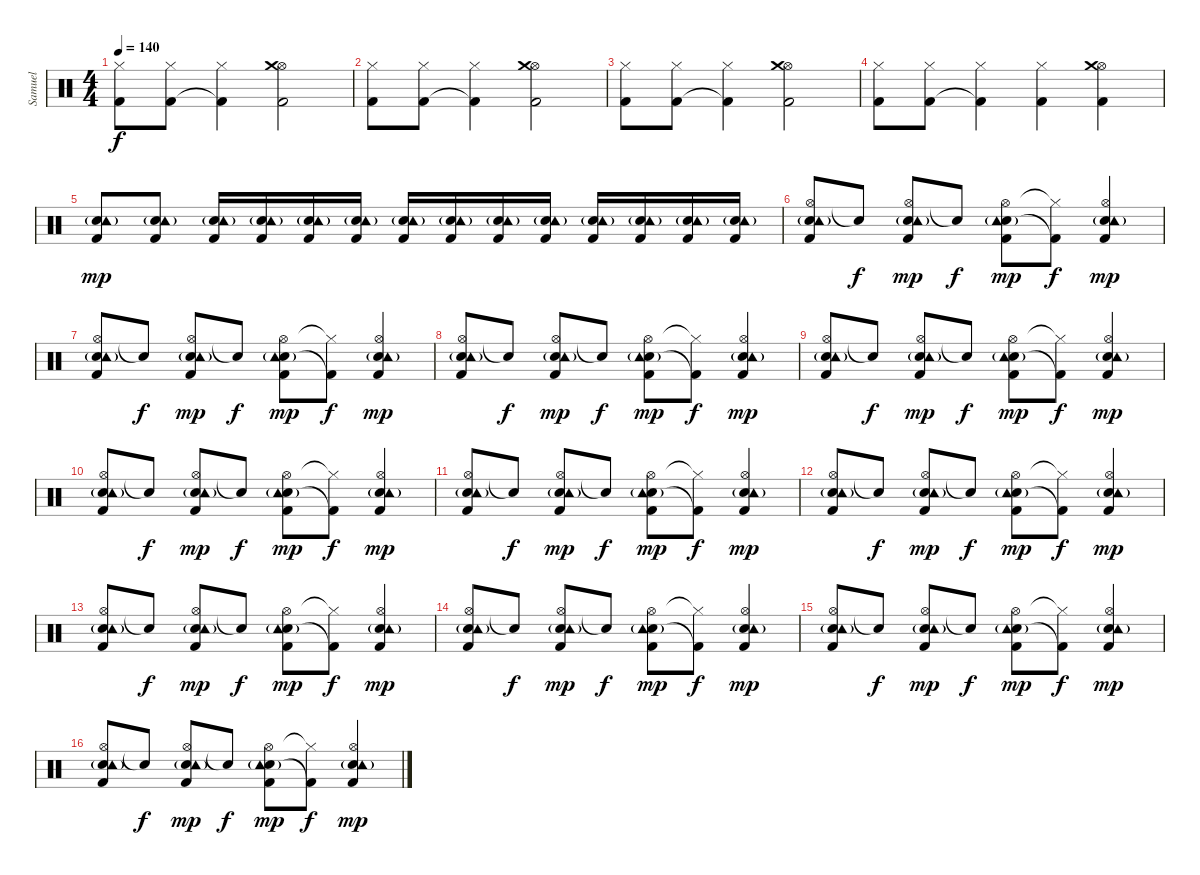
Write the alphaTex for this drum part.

\track ("Samuel" "Samuel") {instrument percussion}
\staff {score}
\articulation defaults
\ts (4 4)
\tempo 140
\clef neutral
\ks c
("Hi-Hat (closed)" "Kick (hit) 2").8{dy f} ("Hi-Hat (closed)" "Kick (hit) 2").8 ("Hi-Hat (closed)" "Kick (hit) 2"{t}).4 ("Hi-Hat (open)" "Crash medium (hit)" "Kick (hit) 2").2 |
("Hi-Hat (closed)" "Kick (hit) 2").8 ("Hi-Hat (closed)" "Kick (hit) 2").8 ("Hi-Hat (closed)" "Kick (hit) 2"{t}).4 ("Hi-Hat (open)" "Crash medium (hit)" "Kick (hit) 2").2 |
("Hi-Hat (closed)" "Kick (hit) 2").8 ("Hi-Hat (closed)" "Kick (hit) 2").8 ("Hi-Hat (closed)" "Kick (hit) 2"{t}).4 ("Hi-Hat (open)" "Crash medium (hit)" "Kick (hit) 2").2 |
("Hi-Hat (closed)" "Kick (hit) 2").8 ("Hi-Hat (closed)" "Kick (hit) 2").8 ("Hi-Hat (closed)" "Kick (hit) 2"{t}).4 ("Hi-Hat (closed)" "Kick (hit) 2").4 ("Hi-Hat (open)" "Crash medium (hit)" "Kick (hit) 2").4 |
("Snare (hit) 2"{g} "Kick (hit) 2" "Tambourine (hit)").8{dy mp} ("Snare (hit) 2"{g} "Kick (hit) 2" "Tambourine (hit)").8 ("Snare (hit) 2"{g} "Kick (hit) 2" "Tambourine (hit)").16 ("Snare (hit) 2"{g} "Kick (hit) 2" "Tambourine (hit)").16 ("Snare (hit) 2"{g} "Kick (hit) 2" "Tambourine (hit)").16 ("Snare (hit) 2"{g} "Kick (hit) 2" "Tambourine (hit)").16 ("Snare (hit) 2"{g} "Kick (hit) 2" "Tambourine (hit)").16 ("Snare (hit) 2"{g} "Kick (hit) 2" "Tambourine (hit)").16 ("Snare (hit) 2"{g} "Kick (hit) 2" "Tambourine (hit)").16 ("Snare (hit) 2"{g} "Kick (hit) 2" "Tambourine (hit)").16 ("Snare (hit) 2"{g} "Kick (hit) 2" "Tambourine (hit)").16 ("Snare (hit) 2"{g} "Kick (hit) 2" "Tambourine (hit)").16 ("Snare (hit) 2"{g} "Kick (hit) 2" "Tambourine (hit)").16 ("Snare (hit) 2"{g} "Kick (hit) 2" "Tambourine (hit)").16 |
("Hi-Hat (open)" "Snare (hit) 2"{g} "Kick (hit) 2" "Tambourine (hit)").8 "Snare (hit)"{t}.8{dy f} ("Hi-Hat (open)" "Snare (hit) 2"{g} "Kick (hit) 2" "Tambourine (hit)").8{dy mp} "Snare (hit)"{t}.8{dy f} ("Hi-Hat (open)" "Snare (hit) 2"{g} "Kick (hit) 2" "Tambourine (hit)").8{dy mp} ("Hi-Hat (closed)"{t} "Kick (hit) 2"{t}).8{dy f} ("Hi-Hat (open)" "Snare (hit) 2"{g} "Kick (hit) 2" "Tambourine (hit)").4{dy mp} |
("Hi-Hat (open)" "Snare (hit) 2"{g} "Kick (hit) 2" "Tambourine (hit)").8 "Snare (hit)"{t}.8{dy f} ("Hi-Hat (open)" "Snare (hit) 2"{g} "Kick (hit) 2" "Tambourine (hit)").8{dy mp} "Snare (hit)"{t}.8{dy f} ("Hi-Hat (open)" "Snare (hit) 2"{g} "Kick (hit) 2" "Tambourine (hit)").8{dy mp} ("Hi-Hat (closed)"{t} "Kick (hit) 2"{t}).8{dy f} ("Hi-Hat (open)" "Snare (hit) 2"{g} "Kick (hit) 2" "Tambourine (hit)").4{dy mp} |
("Hi-Hat (open)" "Snare (hit) 2"{g} "Kick (hit) 2" "Tambourine (hit)").8 "Snare (hit)"{t}.8{dy f} ("Hi-Hat (open)" "Snare (hit) 2"{g} "Kick (hit) 2" "Tambourine (hit)").8{dy mp} "Snare (hit)"{t}.8{dy f} ("Hi-Hat (open)" "Snare (hit) 2"{g} "Kick (hit) 2" "Tambourine (hit)").8{dy mp} ("Hi-Hat (closed)"{t} "Kick (hit) 2"{t}).8{dy f} ("Hi-Hat (open)" "Snare (hit) 2"{g} "Kick (hit) 2" "Tambourine (hit)").4{dy mp} |
("Hi-Hat (open)" "Snare (hit) 2"{g} "Kick (hit) 2" "Tambourine (hit)").8 "Snare (hit)"{t}.8{dy f} ("Hi-Hat (open)" "Snare (hit) 2"{g} "Kick (hit) 2" "Tambourine (hit)").8{dy mp} "Snare (hit)"{t}.8{dy f} ("Hi-Hat (open)" "Snare (hit) 2"{g} "Kick (hit) 2" "Tambourine (hit)").8{dy mp} ("Hi-Hat (closed)"{t} "Kick (hit) 2"{t}).8{dy f} ("Hi-Hat (open)" "Snare (hit) 2"{g} "Kick (hit) 2" "Tambourine (hit)").4{dy mp} |
("Hi-Hat (open)" "Snare (hit) 2"{g} "Kick (hit) 2" "Tambourine (hit)").8 "Snare (hit)"{t}.8{dy f} ("Hi-Hat (open)" "Snare (hit) 2"{g} "Kick (hit) 2" "Tambourine (hit)").8{dy mp} "Snare (hit)"{t}.8{dy f} ("Hi-Hat (open)" "Snare (hit) 2"{g} "Kick (hit) 2" "Tambourine (hit)").8{dy mp} ("Hi-Hat (closed)"{t} "Kick (hit) 2"{t}).8{dy f} ("Hi-Hat (open)" "Snare (hit) 2"{g} "Kick (hit) 2" "Tambourine (hit)").4{dy mp} |
("Hi-Hat (open)" "Snare (hit) 2"{g} "Kick (hit) 2" "Tambourine (hit)").8 "Snare (hit)"{t}.8{dy f} ("Hi-Hat (open)" "Snare (hit) 2"{g} "Kick (hit) 2" "Tambourine (hit)").8{dy mp} "Snare (hit)"{t}.8{dy f} ("Hi-Hat (open)" "Snare (hit) 2"{g} "Kick (hit) 2" "Tambourine (hit)").8{dy mp} ("Hi-Hat (closed)"{t} "Kick (hit) 2"{t}).8{dy f} ("Hi-Hat (open)" "Snare (hit) 2"{g} "Kick (hit) 2" "Tambourine (hit)").4{dy mp} |
("Hi-Hat (open)" "Snare (hit) 2"{g} "Kick (hit) 2" "Tambourine (hit)").8 "Snare (hit)"{t}.8{dy f} ("Hi-Hat (open)" "Snare (hit) 2"{g} "Kick (hit) 2" "Tambourine (hit)").8{dy mp} "Snare (hit)"{t}.8{dy f} ("Hi-Hat (open)" "Snare (hit) 2"{g} "Kick (hit) 2" "Tambourine (hit)").8{dy mp} ("Hi-Hat (closed)"{t} "Kick (hit) 2"{t}).8{dy f} ("Hi-Hat (open)" "Snare (hit) 2"{g} "Kick (hit) 2" "Tambourine (hit)").4{dy mp} |
("Hi-Hat (open)" "Snare (hit) 2"{g} "Kick (hit) 2" "Tambourine (hit)").8 "Snare (hit)"{t}.8{dy f} ("Hi-Hat (open)" "Snare (hit) 2"{g} "Kick (hit) 2" "Tambourine (hit)").8{dy mp} "Snare (hit)"{t}.8{dy f} ("Hi-Hat (open)" "Snare (hit) 2"{g} "Kick (hit) 2" "Tambourine (hit)").8{dy mp} ("Hi-Hat (closed)"{t} "Kick (hit) 2"{t}).8{dy f} ("Hi-Hat (open)" "Snare (hit) 2"{g} "Kick (hit) 2" "Tambourine (hit)").4{dy mp} |
("Hi-Hat (open)" "Snare (hit) 2"{g} "Kick (hit) 2" "Tambourine (hit)").8 "Snare (hit)"{t}.8{dy f} ("Hi-Hat (open)" "Snare (hit) 2"{g} "Kick (hit) 2" "Tambourine (hit)").8{dy mp} "Snare (hit)"{t}.8{dy f} ("Hi-Hat (open)" "Snare (hit) 2"{g} "Kick (hit) 2" "Tambourine (hit)").8{dy mp} ("Hi-Hat (closed)"{t} "Kick (hit) 2"{t}).8{dy f} ("Hi-Hat (open)" "Snare (hit) 2"{g} "Kick (hit) 2" "Tambourine (hit)").4{dy mp} |
("Hi-Hat (open)" "Snare (hit) 2"{g} "Kick (hit) 2" "Tambourine (hit)").8 "Snare (hit)"{t}.8{dy f} ("Hi-Hat (open)" "Snare (hit) 2"{g} "Kick (hit) 2" "Tambourine (hit)").8{dy mp} "Snare (hit)"{t}.8{dy f} ("Hi-Hat (open)" "Snare (hit) 2"{g} "Kick (hit) 2" "Tambourine (hit)").8{dy mp} ("Hi-Hat (closed)"{t} "Kick (hit) 2"{t}).8{dy f} ("Hi-Hat (open)" "Snare (hit) 2"{g} "Kick (hit) 2" "Tambourine (hit)").4{dy mp} |
("Hi-Hat (open)" "Snare (hit) 2"{g} "Kick (hit) 2" "Tambourine (hit)").8 "Snare (hit)"{t}.8{dy f} ("Hi-Hat (open)" "Snare (hit) 2"{g} "Kick (hit) 2" "Tambourine (hit)").8{dy mp} "Snare (hit)"{t}.8{dy f} ("Hi-Hat (open)" "Snare (hit) 2"{g} "Kick (hit) 2" "Tambourine (hit)").8{dy mp} ("Hi-Hat (closed)"{t} "Kick (hit) 2"{t}).8{dy f} ("Hi-Hat (open)" "Snare (hit) 2"{g} "Kick (hit) 2" "Tambourine (hit)").4{dy mp}
